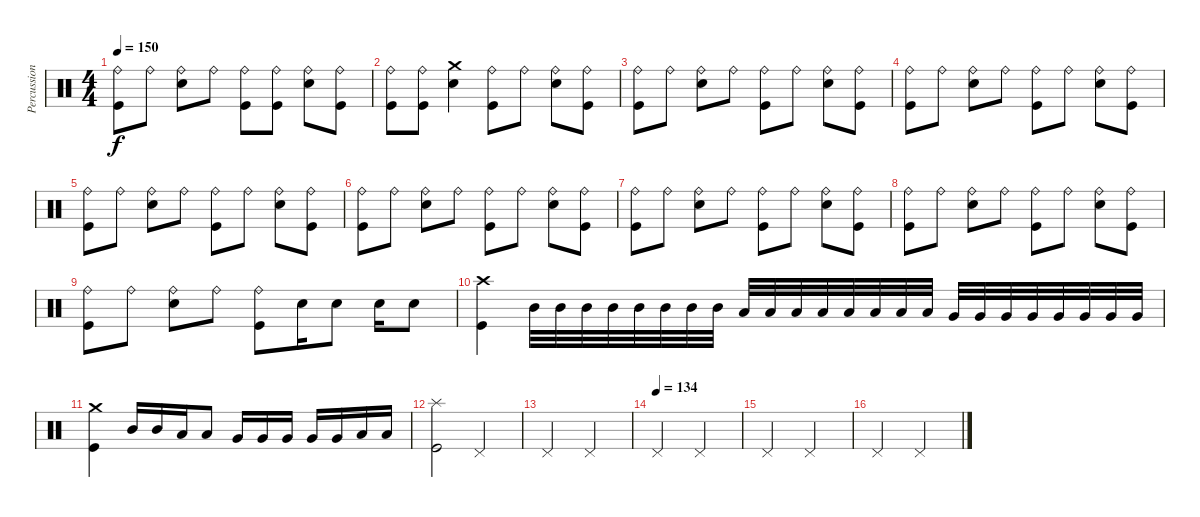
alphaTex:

\track ("Percussions" "Percussion") {instrument percussion}
\staff {score}
\articulation defaults
\ts (4 4)
\tempo 150
\clef neutral
\ks c
("Kick (hit)" "Ride (bell)").8{dy f} "Ride (bell)".8 ("Electric Snare (hit)" "Ride (bell)").8 "Ride (bell)".8 ("Kick (hit)" "Ride (bell)").8 ("Kick (hit)" "Ride (bell)").8 ("Electric Snare (hit)" "Ride (bell)").8 ("Kick (hit)" "Ride (bell)").8 |
("Kick (hit)" "Ride (bell)").8 ("Kick (hit)" "Ride (bell)").8 ("Electric Snare (hit)" "Crash medium (hit)").4 ("Kick (hit)" "Ride (bell)").8 "Ride (bell)".8 ("Electric Snare (hit)" "Ride (bell)").8 ("Kick (hit)" "Ride (bell)").8 |
("Kick (hit)" "Ride (bell)").8 "Ride (bell)".8 ("Electric Snare (hit)" "Ride (bell)").8 "Ride (bell)".8 ("Kick (hit)" "Ride (bell)").8 "Ride (bell)".8 ("Electric Snare (hit)" "Ride (bell)").8 ("Kick (hit)" "Ride (bell)").8 |
("Kick (hit)" "Ride (bell)").8 "Ride (bell)".8 ("Electric Snare (hit)" "Ride (bell)").8 "Ride (bell)".8 ("Kick (hit)" "Ride (bell)").8 "Ride (bell)".8 ("Electric Snare (hit)" "Ride (bell)").8 ("Kick (hit)" "Ride (bell)").8 |
("Kick (hit)" "Ride (bell)").8 "Ride (bell)".8 ("Electric Snare (hit)" "Ride (bell)").8 "Ride (bell)".8 ("Kick (hit)" "Ride (bell)").8 "Ride (bell)".8 ("Electric Snare (hit)" "Ride (bell)").8 ("Kick (hit)" "Ride (bell)").8 |
("Kick (hit)" "Ride (bell)").8 "Ride (bell)".8 ("Electric Snare (hit)" "Ride (bell)").8 "Ride (bell)".8 ("Kick (hit)" "Ride (bell)").8 "Ride (bell)".8 ("Electric Snare (hit)" "Ride (bell)").8 ("Kick (hit)" "Ride (bell)").8 |
("Kick (hit)" "Ride (bell)").8 "Ride (bell)".8 ("Electric Snare (hit)" "Ride (bell)").8 "Ride (bell)".8 ("Kick (hit)" "Ride (bell)").8 "Ride (bell)".8 ("Electric Snare (hit)" "Ride (bell)").8 ("Kick (hit)" "Ride (bell)").8 |
("Kick (hit)" "Ride (bell)").8 "Ride (bell)".8 ("Electric Snare (hit)" "Ride (bell)").8 "Ride (bell)".8 ("Kick (hit)" "Ride (bell)").8 "Ride (bell)".8 ("Electric Snare (hit)" "Ride (bell)").8 ("Kick (hit)" "Ride (bell)").8 |
("Kick (hit)" "Ride (bell)").8 "Ride (bell)".8 ("Electric Snare (hit)" "Ride (bell)").8 "Ride (bell)".8 ("Kick (hit)" "Ride (bell)").8 "Electric Snare (hit)".16 "Electric Snare (hit)".8 "Electric Snare (hit)".16 "Electric Snare (hit)".8 |
("Kick (hit)" "Crash high (hit)").4 "Mid Tom (hit)".32 "Mid Tom (hit)".32 "Mid Tom (hit)".32 "Mid Tom (hit)".32 "Mid Tom (hit)".32 "Mid Tom (hit)".32 "Mid Tom (hit)".32 "Mid Tom (hit)".32 "Low Tom (hit)".32 "Low Tom (hit)".32 "Low Tom (hit)".32 "Low Tom (hit)".32 "Low Tom (hit)".32 "Low Tom (hit)".32 "Low Tom (hit)".32 "Low Tom (hit)".32 "Very Low Tom (hit)".32 "Very Low Tom (hit)".32 "Very Low Tom (hit)".32 "Very Low Tom (hit)".32 "Very Low Tom (hit)".32 "Very Low Tom (hit)".32 "Very Low Tom (hit)".32 "Very Low Tom (hit)".32 |
("Kick (hit)" "Crash medium (hit)").4 "Mid Tom (hit)".16 "Mid Tom (hit)".16 "Low Tom (hit)".16 "Low Tom (hit)".8 "Very Low Tom (hit)".16 "Very Low Tom (hit)".16 "Very Low Tom (hit)".16 "Very Low Tom (hit)".16 "Very Low Tom (hit)".16 "Low Floor Tom (hit)".16 "Low Floor Tom (hit)".16 |
("Kick (hit)" "Splash (hit)").2 "Pedal Hi-Hat (hit)".2 |
"Pedal Hi-Hat (hit)".2 "Pedal Hi-Hat (hit)".2 |
\tempo (134)
"Pedal Hi-Hat (hit)".2 "Pedal Hi-Hat (hit)".2 |
"Pedal Hi-Hat (hit)".2 "Pedal Hi-Hat (hit)".2 |
"Pedal Hi-Hat (hit)".2 "Pedal Hi-Hat (hit)".2
